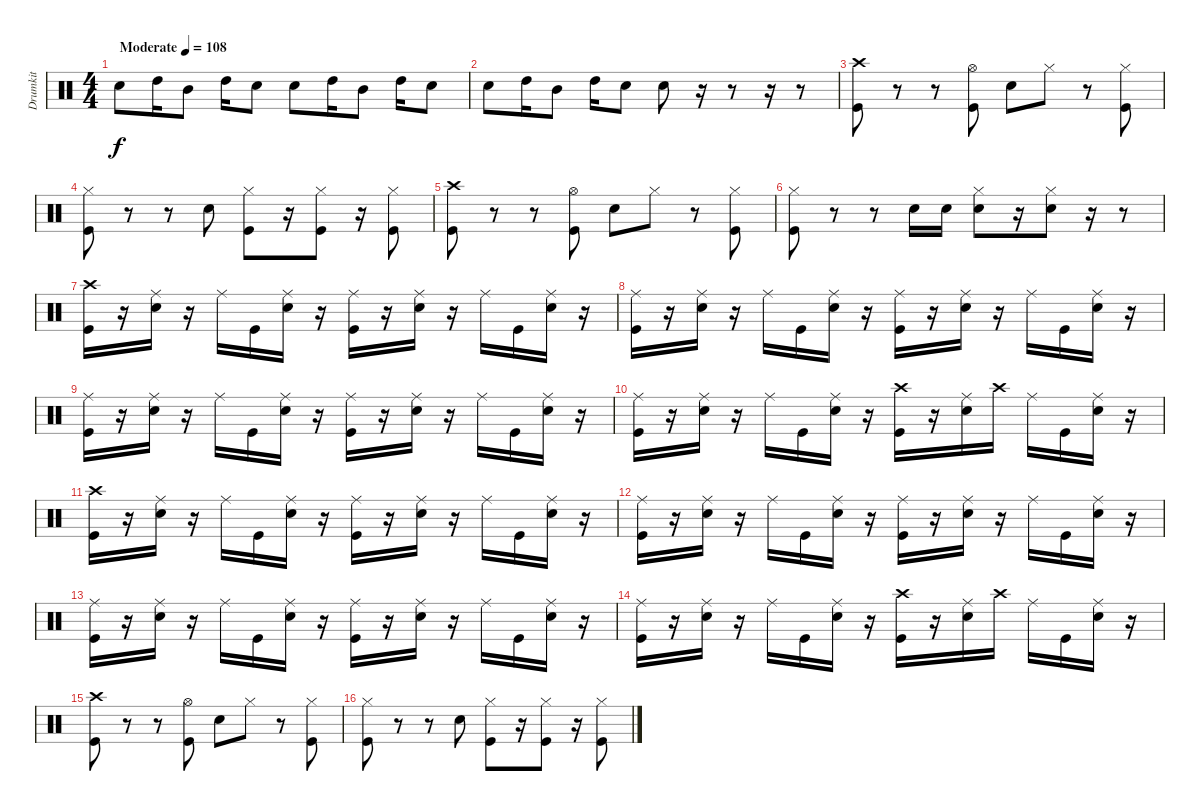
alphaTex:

\track ("Drumkit" "Drumkit") {instrument percussion}
\staff {score}
\articulation defaults
\ts (4 4)
\tempo (108 "Moderate")
\clef neutral
\ks c "Snare (hit) 2".8{dy f} "High Tom (hit)".16 "Mid Tom (hit)".8 "High Tom (hit)".16 "Snare (hit) 2".8 "Snare (hit) 2".8 "High Tom (hit)".16 "Mid Tom (hit)".8 "High Tom (hit)".16 "Snare (hit) 2".8
|
"Snare (hit) 2".8 "High Tom (hit)".16 "Mid Tom (hit)".8 "High Tom (hit)".16 "Snare (hit) 2".8 "Snare (hit) 2".8 r.16 r.8 r.16 r.8 |
("Kick (hit)" "Crash high (hit)").8 r.8 r.8 ("Kick (hit)" "Hi-Hat (open)").8 "Snare (hit) 2".8 "Hi-Hat (closed)".8 r.8 ("Kick (hit)" "Hi-Hat (closed)").8 |
("Kick (hit)" "Hi-Hat (closed)").8 r.8 r.8 "Snare (hit) 2".8 ("Kick (hit)" "Hi-Hat (closed)").8 r.16 ("Kick (hit)" "Hi-Hat (closed)").8 r.16 ("Kick (hit)" "Hi-Hat (closed)").8 |
("Kick (hit)" "Crash high (hit)").8 r.8 r.8 ("Kick (hit)" "Hi-Hat (open)").8 "Snare (hit) 2".8 "Hi-Hat (closed)".8 r.8 ("Kick (hit)" "Hi-Hat (closed)").8 |
("Kick (hit)" "Hi-Hat (closed)").8 r.8 r.8 "Snare (hit) 2".16 "Snare (hit) 2".16 ("Snare (hit) 2" "Hi-Hat (closed)").8 r.16 ("Snare (hit) 2" "Hi-Hat (closed)").8 r.16 r.8 |
("Kick (hit)" "Crash high (hit)").16 r.16 ("Snare (hit) 2" "Ride (middle)").16 r.16 "Ride (middle)".16 "Kick (hit)".16 ("Snare (hit) 2" "Ride (middle)").16 r.16 ("Kick (hit)" "Ride (middle)").16 r.16 ("Snare (hit) 2" "Ride (middle)").16 r.16 "Ride (middle)".16 "Kick (hit)".16 ("Snare (hit) 2" "Ride (middle)").16 r.16 |
("Kick (hit)" "Ride (middle)").16 r.16 ("Snare (hit) 2" "Ride (middle)").16 r.16 "Ride (middle)".16 "Kick (hit)".16 ("Snare (hit) 2" "Ride (middle)").16 r.16 ("Kick (hit)" "Ride (middle)").16 r.16 ("Snare (hit) 2" "Ride (middle)").16 r.16 "Ride (middle)".16 "Kick (hit)".16 ("Snare (hit) 2" "Ride (middle)").16 r.16 |
("Kick (hit)" "Ride (middle)").16 r.16 ("Snare (hit) 2" "Ride (middle)").16 r.16 "Ride (middle)".16 "Kick (hit)".16 ("Snare (hit) 2" "Ride (middle)").16 r.16 ("Kick (hit)" "Ride (middle)").16 r.16 ("Snare (hit) 2" "Ride (middle)").16 r.16 "Ride (middle)".16 "Kick (hit)".16 ("Snare (hit) 2" "Ride (middle)").16 r.16 |
("Kick (hit)" "Ride (middle)").16 r.16 ("Snare (hit) 2" "Ride (middle)").16 r.16 "Ride (middle)".16 "Kick (hit)".16 ("Snare (hit) 2" "Ride (middle)").16 r.16 ("Kick (hit)" "Crash high (hit)").16 r.16 ("Snare (hit) 2" "Ride (middle)").16 "Crash high (hit)".16 "Ride (middle)".16 "Kick (hit)".16 ("Snare (hit) 2" "Ride (middle)").16 r.16 |
("Kick (hit)" "Crash high (hit)").16 r.16 ("Snare (hit) 2" "Ride (middle)").16 r.16 "Ride (middle)".16 "Kick (hit)".16 ("Snare (hit) 2" "Ride (middle)").16 r.16 ("Kick (hit)" "Ride (middle)").16 r.16 ("Snare (hit) 2" "Ride (middle)").16 r.16 "Ride (middle)".16 "Kick (hit)".16 ("Snare (hit) 2" "Ride (middle)").16 r.16 |
("Kick (hit)" "Ride (middle)").16 r.16 ("Snare (hit) 2" "Ride (middle)").16 r.16 "Ride (middle)".16 "Kick (hit)".16 ("Snare (hit) 2" "Ride (middle)").16 r.16 ("Kick (hit)" "Ride (middle)").16 r.16 ("Snare (hit) 2" "Ride (middle)").16 r.16 "Ride (middle)".16 "Kick (hit)".16 ("Snare (hit) 2" "Ride (middle)").16 r.16 |
("Kick (hit)" "Ride (middle)").16 r.16 ("Snare (hit) 2" "Ride (middle)").16 r.16 "Ride (middle)".16 "Kick (hit)".16 ("Snare (hit) 2" "Ride (middle)").16 r.16 ("Kick (hit)" "Ride (middle)").16 r.16 ("Snare (hit) 2" "Ride (middle)").16 r.16 "Ride (middle)".16 "Kick (hit)".16 ("Snare (hit) 2" "Ride (middle)").16 r.16 |
("Kick (hit)" "Ride (middle)").16 r.16 ("Snare (hit) 2" "Ride (middle)").16 r.16 "Ride (middle)".16 "Kick (hit)".16 ("Snare (hit) 2" "Ride (middle)").16 r.16 ("Kick (hit)" "Crash high (hit)").16 r.16 ("Snare (hit) 2" "Ride (middle)").16 "Crash high (hit)".16 "Ride (middle)".16 "Kick (hit)".16 ("Snare (hit) 2" "Ride (middle)").16 r.16 |
("Kick (hit)" "Crash high (hit)").8 r.8 r.8 ("Kick (hit)" "Hi-Hat (open)").8 "Snare (hit) 2".8 "Hi-Hat (closed)".8 r.8 ("Kick (hit)" "Hi-Hat (closed)").8 |
("Kick (hit)" "Hi-Hat (closed)").8 r.8 r.8 "Snare (hit) 2".8 ("Kick (hit)" "Hi-Hat (closed)").8 r.16 ("Kick (hit)" "Hi-Hat (closed)").8 r.16 ("Kick (hit)" "Hi-Hat (closed)").8
